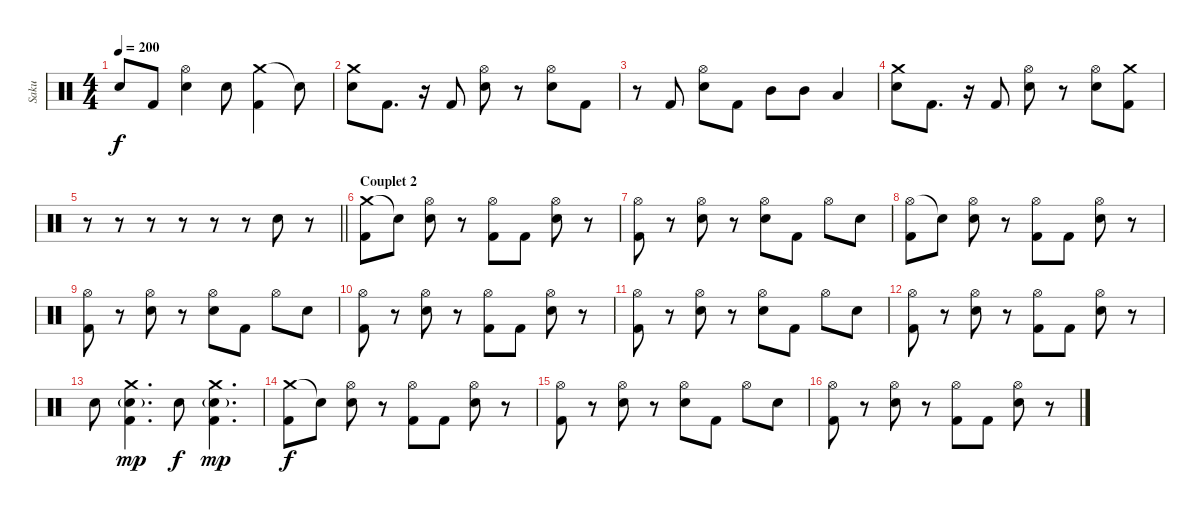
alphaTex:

\track ("Saku" "Saku") {instrument percussion}
\staff {score}
\articulation defaults
\ts (4 4)
\tempo 200
\clef neutral
\ks c "Snare (hit)"{t}.8{dy f} "Kick (hit) 2".8
("Hi-Hat (open)" "Electric Snare (hit)").4 "Electric Snare (hit)".8 ("Crash medium (hit)" "Kick (hit) 2").4 "Snare (hit)"{t}.8 |
("Crash medium (hit)" "Electric Snare (hit)").8 "Kick (hit) 2".8{d} r.16 "Kick (hit) 2".8 ("Hi-Hat (open)" "Electric Snare (hit)").8 r.8 ("Hi-Hat (open)" "Electric Snare (hit)").8 "Kick (hit) 2".8 |
r.8 "Kick (hit) 2".8 ("Hi-Hat (open)" "Electric Snare (hit)").8 "Kick (hit) 2".8 "Mid Tom (hit)".8 "Mid Tom (hit)".8 "Low Tom (hit)".4 |
("Crash medium (hit)" "Electric Snare (hit)").8 "Kick (hit) 2".8{d} r.16 "Kick (hit) 2".8 ("Hi-Hat (open)" "Electric Snare (hit)").8 r.8 ("Hi-Hat (open)" "Electric Snare (hit)").8 ("Crash medium (hit)" "Kick (hit) 2").8 |
\barLineRight lightlight
r.8 r.8 r.8 r.8 r.8 r.8 "Electric Snare (hit)".8 r.8 |
\section ("" "Couplet 2")
("Crash medium (hit)" "Kick (hit) 2").8 "Snare (hit)"{t}.8 ("Hi-Hat (open)" "Electric Snare (hit)").8 r.8 ("Hi-Hat (open)" "Kick (hit) 2").8 "Kick (hit) 2".8 ("Hi-Hat (open)" "Electric Snare (hit)").8 r.8 |
("Hi-Hat (open)" "Kick (hit) 2").8 r.8 ("Hi-Hat (open)" "Electric Snare (hit)").8 r.8 ("Hi-Hat (open)" "Electric Snare (hit)").8 "Kick (hit) 2".8 "Hi-Hat (open)".8 "Electric Snare (hit)".8 |
("Hi-Hat (open)" "Kick (hit) 2").8 "Snare (hit)"{t}.8 ("Hi-Hat (open)" "Electric Snare (hit)").8 r.8 ("Hi-Hat (open)" "Kick (hit) 2").8 "Kick (hit) 2".8 ("Hi-Hat (open)" "Electric Snare (hit)").8 r.8 |
("Hi-Hat (open)" "Kick (hit) 2").8 r.8 ("Hi-Hat (open)" "Electric Snare (hit)").8 r.8 ("Hi-Hat (open)" "Electric Snare (hit)").8 "Kick (hit) 2".8 "Hi-Hat (open)".8 "Electric Snare (hit)".8 |
("Hi-Hat (open)" "Kick (hit) 2").8 r.8 ("Hi-Hat (open)" "Electric Snare (hit)").8 r.8 ("Hi-Hat (open)" "Kick (hit) 2").8 "Kick (hit) 2".8 ("Hi-Hat (open)" "Electric Snare (hit)").8 r.8 |
("Hi-Hat (open)" "Kick (hit) 2").8 r.8 ("Hi-Hat (open)" "Electric Snare (hit)").8 r.8 ("Hi-Hat (open)" "Electric Snare (hit)").8 "Kick (hit) 2".8 "Hi-Hat (open)".8 "Electric Snare (hit)".8 |
("Hi-Hat (open)" "Kick (hit) 2").8 r.8 ("Hi-Hat (open)" "Electric Snare (hit)").8 r.8 ("Hi-Hat (open)" "Kick (hit) 2").8 "Kick (hit) 2".8 ("Hi-Hat (open)" "Electric Snare (hit)").8 r.8 |
"Electric Snare (hit)".8 ("Crash medium (hit)" "Electric Snare (hit)"{g} "Kick (hit) 2").4{d dy mp} "Electric Snare (hit)".8{dy f} ("Crash medium (hit)" "Electric Snare (hit)"{g} "Kick (hit) 2").4{d dy mp} |
("Crash medium (hit)" "Kick (hit) 2").8{dy f} "Snare (hit)"{t}.8 ("Hi-Hat (open)" "Electric Snare (hit)").8 r.8 ("Hi-Hat (open)" "Kick (hit) 2").8 "Kick (hit) 2".8 ("Hi-Hat (open)" "Electric Snare (hit)").8 r.8 |
("Hi-Hat (open)" "Kick (hit) 2").8 r.8 ("Hi-Hat (open)" "Electric Snare (hit)").8 r.8 ("Hi-Hat (open)" "Electric Snare (hit)").8 "Kick (hit) 2".8 "Hi-Hat (open)".8 "Electric Snare (hit)".8 |
("Hi-Hat (open)" "Kick (hit) 2").8 r.8 ("Hi-Hat (open)" "Electric Snare (hit)").8 r.8 ("Hi-Hat (open)" "Kick (hit) 2").8 "Kick (hit) 2".8 ("Hi-Hat (open)" "Electric Snare (hit)").8 r.8
